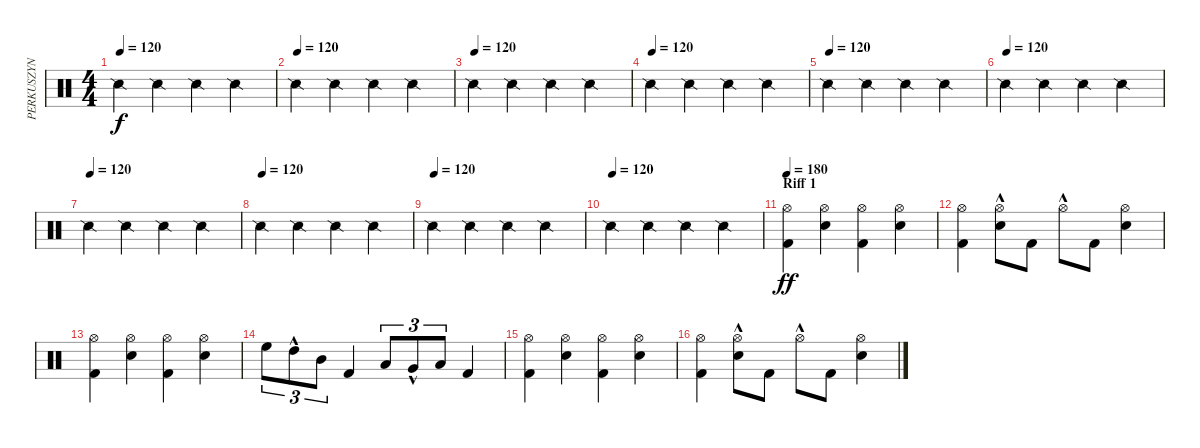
\track ("PERKUSZYN" "PERKUSZYN") {instrument percussion}
\staff {score}
\articulation defaults
\ts (4 4)
\tempo 120
\clef neutral
\ks c "Snare (side stick) 2".4{dy f} "Snare (side stick) 2".4 "Snare (side stick) 2".4 "Snare (side stick) 2".4
|
\tempo (120)
"Snare (side stick) 2".4 "Snare (side stick) 2".4 "Snare (side stick) 2".4 "Snare (side stick) 2".4 |
\tempo (120)
"Snare (side stick) 2".4 "Snare (side stick) 2".4 "Snare (side stick) 2".4 "Snare (side stick) 2".4 |
\tempo (120)
"Snare (side stick) 2".4 "Snare (side stick) 2".4 "Snare (side stick) 2".4 "Snare (side stick) 2".4 |
\tempo (120)
"Snare (side stick) 2".4 "Snare (side stick) 2".4 "Snare (side stick) 2".4 "Snare (side stick) 2".4 |
\tempo (120)
"Snare (side stick) 2".4 "Snare (side stick) 2".4 "Snare (side stick) 2".4 "Snare (side stick) 2".4 |
\tempo (120)
"Snare (side stick) 2".4 "Snare (side stick) 2".4 "Snare (side stick) 2".4 "Snare (side stick) 2".4 |
\tempo (120)
"Snare (side stick) 2".4 "Snare (side stick) 2".4 "Snare (side stick) 2".4 "Snare (side stick) 2".4 |
\tempo (120)
"Snare (side stick) 2".4 "Snare (side stick) 2".4 "Snare (side stick) 2".4 "Snare (side stick) 2".4 |
\tempo (120)
"Snare (side stick) 2".4 "Snare (side stick) 2".4 "Snare (side stick) 2".4 "Snare (side stick) 2".4 |
\section ("" "Riff 1")
\tempo 180
("Kick (hit) 2" "Hi-Hat (open)").4{dy ff} ("Snare (hit) 2" "Hi-Hat (open)").4 ("Kick (hit) 2" "Hi-Hat (open)").4 ("Snare (hit) 2" "Hi-Hat (open)").4 |
("Kick (hit) 2" "Hi-Hat (open)").4 ("Snare (hit) 2" "Hi-Hat (open)"{hac}).8 "Kick (hit) 2".8 "Hi-Hat (open)"{hac}.8 "Kick (hit) 2".8 ("Snare (hit) 2" "Hi-Hat (open)").4 |
("Kick (hit) 2" "Hi-Hat (open)").4 ("Snare (hit) 2" "Hi-Hat (open)").4 ("Kick (hit) 2" "Hi-Hat (open)").4 ("Snare (hit) 2" "Hi-Hat (open)").4 |
"High Floor Tom (hit)".8{tu (3 2)} "High Tom (hit)"{hac}.8{tu (3 2)} "Mid Tom (hit)".8{tu (3 2)} "Kick (hit) 2".4 "Low Tom (hit)".8{tu (3 2)} "Very Low Tom (hit)"{hac}.8{tu (3 2)} "Low Floor Tom (hit)".8{tu (3 2)} "Kick (hit) 2".4 |
("Kick (hit) 2" "Hi-Hat (open)").4 ("Snare (hit) 2" "Hi-Hat (open)").4 ("Kick (hit) 2" "Hi-Hat (open)").4 ("Snare (hit) 2" "Hi-Hat (open)").4 |
("Kick (hit) 2" "Hi-Hat (open)").4 ("Snare (hit) 2" "Hi-Hat (open)"{hac}).8 "Kick (hit) 2".8 "Hi-Hat (open)"{hac}.8 "Kick (hit) 2".8 ("Snare (hit) 2" "Hi-Hat (open)").4
